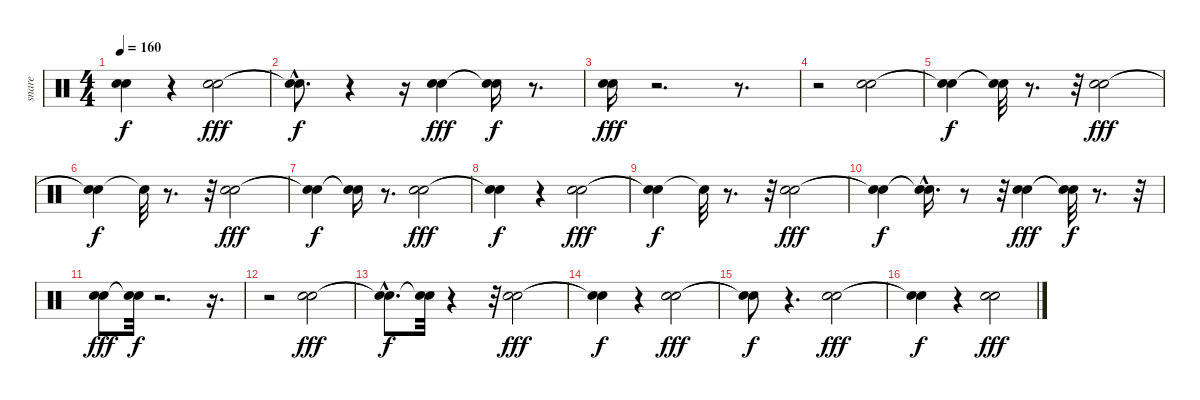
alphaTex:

\track ("snare" "snare") {instrument percussion}
\staff {score}
\articulation defaults
\ts (4 4)
\tempo 160
\clef neutral
\ks c
("Snare (hit)"{t} "Snare (hit)"{t}).4{dy f} r.4 ("Electric Snare (hit)" "Snare (hit) 2").2{dy fff} |
("Snare (hit)"{t} "Snare (hit)"{hac t}).8{d dy f} r.4 r.16 ("Snare (hit) 2" "Electric Snare (hit)").4{dy fff} ("Snare (hit)"{t} "Snare (hit)"{t}).16{dy f} r.8{d} |
("Electric Snare (hit)" "Snare (hit) 2").16{dy fff} r.2{d} r.8{d} |
r.2 ("Electric Snare (hit)" "Snare (hit) 2").2 |
("Snare (hit)"{t} "Snare (hit)"{t}).4{dy f} ("Snare (hit)"{t} "Snare (hit)"{t}).32 r.8{d} r.32 ("Snare (hit) 2" "Electric Snare (hit)").2{dy fff} |
("Snare (hit)"{t} "Snare (hit)"{t}).4{dy f} "Snare (hit)"{t}.32 r.8{d} r.32 ("Snare (hit) 2" "Electric Snare (hit)").2{dy fff} |
("Snare (hit)"{t} "Snare (hit)"{t}).4{dy f} ("Snare (hit)"{t} "Snare (hit)"{t}).16 r.8{d} ("Snare (hit) 2" "Electric Snare (hit)").2{dy fff} |
("Snare (hit)"{t} "Snare (hit)"{t}).4{dy f} r.4 ("Snare (hit) 2" "Electric Snare (hit)").2{dy fff} |
("Snare (hit)"{t} "Snare (hit)"{t}).4{dy f} "Snare (hit)"{t}.32 r.8{d} r.32 ("Electric Snare (hit)" "Snare (hit) 2").2{dy fff} |
("Snare (hit)"{t} "Snare (hit)"{t}).4{dy f} ("Snare (hit)"{t} "Snare (hit)"{hac t}).16{d} r.8 r.32 ("Snare (hit) 2" "Electric Snare (hit)").4{dy fff} ("Snare (hit)"{t} "Snare (hit)"{t}).32{dy f} r.8{d} r.32 |
("Electric Snare (hit)" "Snare (hit) 2").8{dy fff} ("Snare (hit)"{t} "Snare (hit)"{t}).32{dy f} r.2{d} r.16{d} |
r.2 ("Electric Snare (hit)" "Snare (hit) 2").2{dy fff} |
("Snare (hit)"{hac t} "Snare (hit)"{hac t}).8{d dy f} ("Snare (hit)"{t} "Snare (hit)"{t}).32 r.4 r.32 ("Snare (hit) 2" "Electric Snare (hit)").2{dy fff} |
("Snare (hit)"{t} "Snare (hit)"{t}).4{dy f} r.4 ("Snare (hit) 2" "Electric Snare (hit)").2{dy fff} |
("Snare (hit)"{t} "Snare (hit)"{t}).8{dy f} r.4{d} ("Snare (hit) 2" "Electric Snare (hit)").2{dy fff} |
("Snare (hit)"{t} "Snare (hit)"{t}).4{dy f} r.4 ("Snare (hit) 2" "Electric Snare (hit)").2{dy fff}
